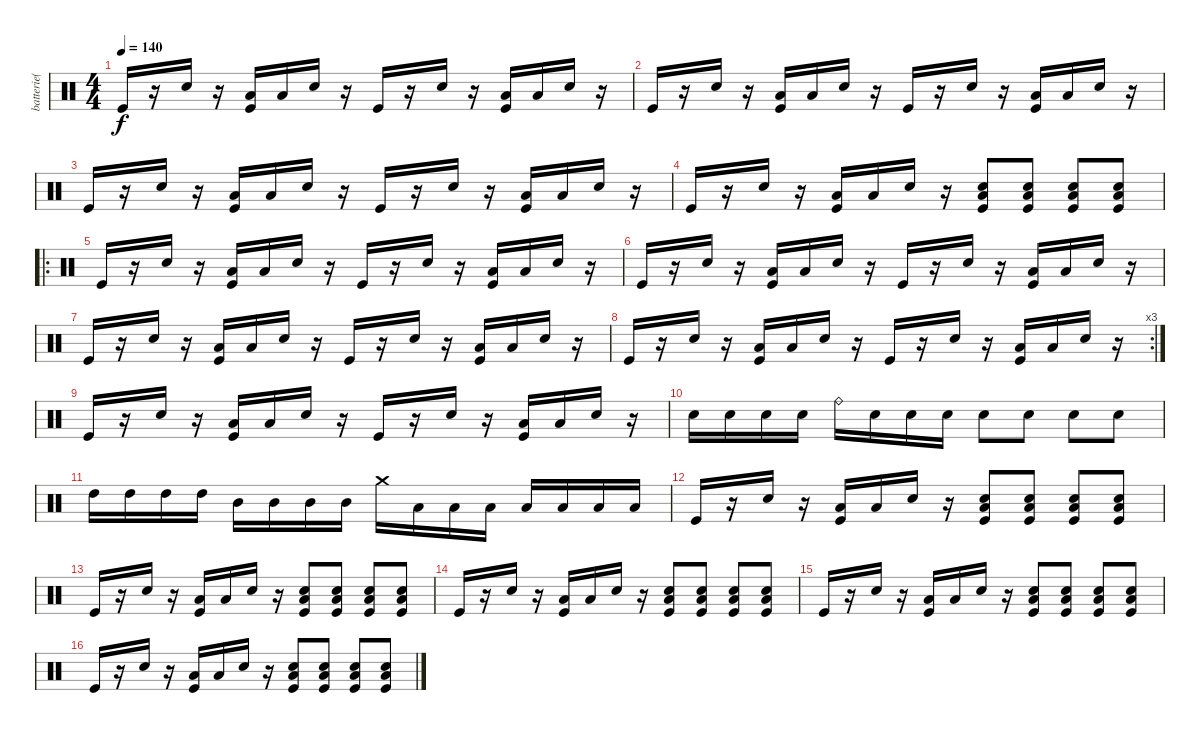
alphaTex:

\track ("batterie( Yureesh )" "batterie( ") {instrument percussion}
\staff {score}
\articulation defaults
\ts (4 4)
\tempo 140
\clef neutral
\ks c "Kick (hit)".16{dy f}
r.16 "Snare (hit) 2".16 r.16 ("Low Floor Tom (hit)" "Kick (hit)").16 "Low Floor Tom (hit)".16 "Snare (hit) 2".16 r.16 "Kick (hit)".16 r.16 "Snare (hit) 2".16 r.16 ("Low Floor Tom (hit)" "Kick (hit)").16 "Low Floor Tom (hit)".16 "Snare (hit) 2".16 r.16 |
"Kick (hit)".16 r.16 "Snare (hit) 2".16 r.16 ("Low Floor Tom (hit)" "Kick (hit)").16 "Low Floor Tom (hit)".16 "Snare (hit) 2".16 r.16 "Kick (hit)".16 r.16 "Snare (hit) 2".16 r.16 ("Low Floor Tom (hit)" "Kick (hit)").16 "Low Floor Tom (hit)".16 "Snare (hit) 2".16 r.16 |
"Kick (hit)".16 r.16 "Snare (hit) 2".16 r.16 ("Low Floor Tom (hit)" "Kick (hit)").16 "Low Floor Tom (hit)".16 "Snare (hit) 2".16 r.16 "Kick (hit)".16 r.16 "Snare (hit) 2".16 r.16 ("Low Floor Tom (hit)" "Kick (hit)").16 "Low Floor Tom (hit)".16 "Snare (hit) 2".16 r.16 |
"Kick (hit)".16 r.16 "Snare (hit) 2".16 r.16 ("Low Floor Tom (hit)" "Kick (hit)").16 "Low Floor Tom (hit)".16 "Snare (hit) 2".16 r.16 ("Low Floor Tom (hit)" "Snare (hit) 2" "Kick (hit)").8 ("Low Floor Tom (hit)" "Snare (hit) 2" "Kick (hit)").8 ("Low Floor Tom (hit)" "Snare (hit) 2" "Kick (hit)").8 ("Low Floor Tom (hit)" "Snare (hit) 2" "Kick (hit)").8 |
\ro "Kick (hit)".16
r.16 "Snare (hit) 2".16 r.16 ("Low Floor Tom (hit)" "Kick (hit)").16 "Low Floor Tom (hit)".16 "Snare (hit) 2".16 r.16 "Kick (hit)".16 r.16 "Snare (hit) 2".16 r.16 ("Low Floor Tom (hit)" "Kick (hit)").16 "Low Floor Tom (hit)".16 "Snare (hit) 2".16 r.16 |
"Kick (hit)".16 r.16 "Snare (hit) 2".16 r.16 ("Low Floor Tom (hit)" "Kick (hit)").16 "Low Floor Tom (hit)".16 "Snare (hit) 2".16 r.16 "Kick (hit)".16 r.16 "Snare (hit) 2".16 r.16 ("Low Floor Tom (hit)" "Kick (hit)").16 "Low Floor Tom (hit)".16 "Snare (hit) 2".16 r.16 |
"Kick (hit)".16 r.16 "Snare (hit) 2".16 r.16 ("Low Floor Tom (hit)" "Kick (hit)").16 "Low Floor Tom (hit)".16 "Snare (hit) 2".16 r.16 "Kick (hit)".16 r.16 "Snare (hit) 2".16 r.16 ("Low Floor Tom (hit)" "Kick (hit)").16 "Low Floor Tom (hit)".16 "Snare (hit) 2".16 r.16 |
\rc 3 "Kick (hit)".16
r.16 "Snare (hit) 2".16 r.16 ("Low Floor Tom (hit)" "Kick (hit)").16 "Low Floor Tom (hit)".16 "Snare (hit) 2".16 r.16 "Kick (hit)".16 r.16 "Snare (hit) 2".16 r.16 ("Low Floor Tom (hit)" "Kick (hit)").16 "Low Floor Tom (hit)".16 "Snare (hit) 2".16 r.16 |
"Kick (hit)".16 r.16 "Snare (hit) 2".16 r.16 ("Low Floor Tom (hit)" "Kick (hit)").16 "Low Floor Tom (hit)".16 "Snare (hit) 2".16 r.16 "Kick (hit)".16 r.16 "Snare (hit) 2".16 r.16 ("Low Floor Tom (hit)" "Kick (hit)").16 "Low Floor Tom (hit)".16 "Snare (hit) 2".16 r.16 |
"Snare (hit) 2".16 "Snare (hit) 2".16 "Snare (hit) 2".16 "Snare (hit) 2".16 "Ride (bell)".16 "Snare (hit) 2".16 "Snare (hit) 2".16 "Snare (hit) 2".16 "Snare (hit) 2".8 "Snare (hit) 2".8 "Snare (hit) 2".8 "Snare (hit) 2".8 |
"High Tom (hit)".16 "High Tom (hit)".16 "High Tom (hit)".16 "High Tom (hit)".16 "Mid Tom (hit)".16 "Mid Tom (hit)".16 "Mid Tom (hit)".16 "Mid Tom (hit)".16 "Crash medium (hit)".16 "Low Tom (hit)".16 "Low Tom (hit)".16 "Low Tom (hit)".16 "Low Floor Tom (hit)".16 "Low Floor Tom (hit)".16 "Low Floor Tom (hit)".16 "Low Floor Tom (hit)".16 |
"Kick (hit)".16 r.16 "Snare (hit) 2".16 r.16 ("Low Floor Tom (hit)" "Kick (hit)").16 "Low Floor Tom (hit)".16 "Snare (hit) 2".16 r.16 ("Low Floor Tom (hit)" "Snare (hit) 2" "Kick (hit)").8 ("Low Floor Tom (hit)" "Snare (hit) 2" "Kick (hit)").8 ("Low Floor Tom (hit)" "Snare (hit) 2" "Kick (hit)").8 ("Low Floor Tom (hit)" "Snare (hit) 2" "Kick (hit)").8 |
"Kick (hit)".16 r.16 "Snare (hit) 2".16 r.16 ("Low Floor Tom (hit)" "Kick (hit)").16 "Low Floor Tom (hit)".16 "Snare (hit) 2".16 r.16 ("Low Floor Tom (hit)" "Snare (hit) 2" "Kick (hit)").8 ("Low Floor Tom (hit)" "Snare (hit) 2" "Kick (hit)").8 ("Low Floor Tom (hit)" "Snare (hit) 2" "Kick (hit)").8 ("Low Floor Tom (hit)" "Snare (hit) 2" "Kick (hit)").8 |
"Kick (hit)".16 r.16 "Snare (hit) 2".16 r.16 ("Low Floor Tom (hit)" "Kick (hit)").16 "Low Floor Tom (hit)".16 "Snare (hit) 2".16 r.16 ("Low Floor Tom (hit)" "Snare (hit) 2" "Kick (hit)").8 ("Low Floor Tom (hit)" "Snare (hit) 2" "Kick (hit)").8 ("Low Floor Tom (hit)" "Snare (hit) 2" "Kick (hit)").8 ("Low Floor Tom (hit)" "Snare (hit) 2" "Kick (hit)").8 |
"Kick (hit)".16 r.16 "Snare (hit) 2".16 r.16 ("Low Floor Tom (hit)" "Kick (hit)").16 "Low Floor Tom (hit)".16 "Snare (hit) 2".16 r.16 ("Low Floor Tom (hit)" "Snare (hit) 2" "Kick (hit)").8 ("Low Floor Tom (hit)" "Snare (hit) 2" "Kick (hit)").8 ("Low Floor Tom (hit)" "Snare (hit) 2" "Kick (hit)").8 ("Low Floor Tom (hit)" "Snare (hit) 2" "Kick (hit)").8 |
"Kick (hit)".16 r.16 "Snare (hit) 2".16 r.16 ("Low Floor Tom (hit)" "Kick (hit)").16 "Low Floor Tom (hit)".16 "Snare (hit) 2".16 r.16 ("Low Floor Tom (hit)" "Snare (hit) 2" "Kick (hit)").8 ("Low Floor Tom (hit)" "Snare (hit) 2" "Kick (hit)").8 ("Low Floor Tom (hit)" "Snare (hit) 2" "Kick (hit)").8 ("Low Floor Tom (hit)" "Snare (hit) 2" "Kick (hit)").8
